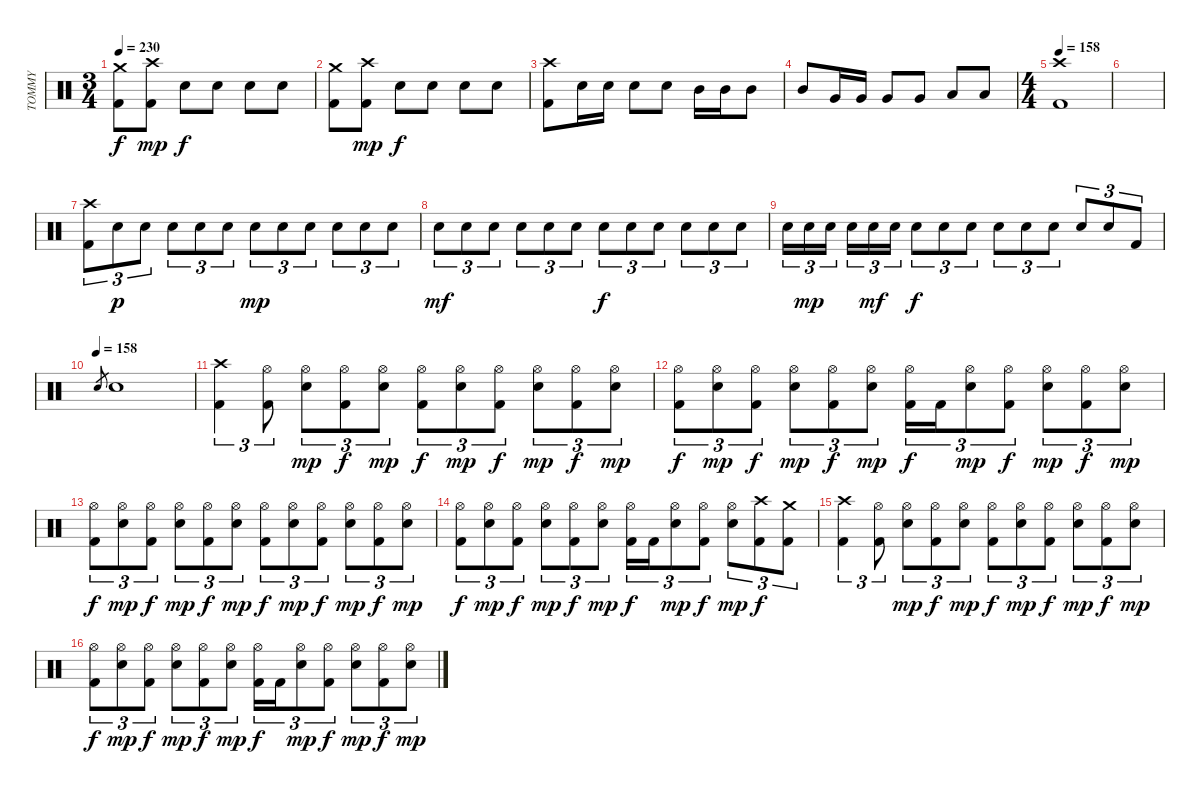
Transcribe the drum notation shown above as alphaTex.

\track ("TOMMY" "TOMMY") {instrument percussion}
\staff {score}
\articulation defaults
\ts (3 4)
\tempo 230
\clef neutral
\ks c
("Kick (hit) 2" "Crash medium (hit)").8{dy f} ("Kick (hit) 2" "Crash high (hit)").8{dy mp} "Snare (hit) 2".8{dy f} "Snare (hit) 2".8 "Snare (hit) 2".8 "Snare (hit) 2".8 |
("Kick (hit) 2" "Crash medium (hit)").8 ("Kick (hit) 2" "Crash high (hit)").8{dy mp} "Snare (hit) 2".8{dy f} "Snare (hit) 2".8 "Snare (hit) 2".8 "Snare (hit) 2".8 |
("Kick (hit) 2" "Crash high (hit)").8 "Snare (hit) 2".16 "Snare (hit) 2".16 "Snare (hit) 2".8 "Snare (hit) 2".8 "Mid Tom (hit)".16 "Mid Tom (hit)".16 "Mid Tom (hit)".8 |
"Mid Tom (hit)".8 "Very Low Tom (hit)".16 "Very Low Tom (hit)".16 "Very Low Tom (hit)".8 "Very Low Tom (hit)".8 "Low Floor Tom (hit)".8 "Low Floor Tom (hit)".8 |
\ts (4 4)
\tempo 158
("Kick (hit) 2" "Crash high (hit)").1 |
|
("Kick (hit) 2" "Crash high (hit)").8{tu (3 2)} "Snare (hit) 2".8{tu (3 2) dy p} "Snare (hit) 2".8{tu (3 2)} "Snare (hit) 2".8{tu (3 2)} "Snare (hit) 2".8{tu (3 2)} "Snare (hit) 2".8{tu (3 2)} "Snare (hit) 2".8{tu (3 2) dy mp} "Snare (hit) 2".8{tu (3 2)} "Snare (hit) 2".8{tu (3 2)} "Snare (hit) 2".8{tu (3 2)} "Snare (hit) 2".8{tu (3 2)} "Snare (hit) 2".8{tu (3 2)} |
"Snare (hit) 2".8{tu (3 2) dy mf} "Snare (hit) 2".8{tu (3 2)} "Snare (hit) 2".8{tu (3 2)} "Snare (hit) 2".8{tu (3 2)} "Snare (hit) 2".8{tu (3 2)} "Snare (hit) 2".8{tu (3 2)} "Snare (hit) 2".8{tu (3 2) dy f} "Snare (hit) 2".8{tu (3 2)} "Snare (hit) 2".8{tu (3 2)} "Snare (hit) 2".8{tu (3 2)} "Snare (hit) 2".8{tu (3 2)} "Snare (hit) 2".8{tu (3 2)} |
"Snare (hit) 2".16{tu (3 2)} "Snare (hit) 2".16{tu (3 2) dy mp} "Snare (hit) 2".16{tu (3 2)} "Snare (hit) 2".16{tu (3 2)} "Snare (hit) 2".16{tu (3 2) dy mf} "Snare (hit) 2".16{tu (3 2)} "Snare (hit) 2".8{tu (3 2) dy f} "Snare (hit) 2".8{tu (3 2)} "Snare (hit) 2".8{tu (3 2)} "Snare (hit) 2".8{tu (3 2)} "Snare (hit) 2".8{tu (3 2)} "Snare (hit) 2".8{tu (3 2)} "Snare (hit) 2".8{tu (3 2)} "Snare (hit) 2".8{tu (3 2)} "Kick (hit) 2".8{tu (3 2)} |
\tempo (158)
"Snare (hit) 2".8{gr} "Snare (hit) 2".1 |
("Kick (hit) 2" "Crash high (hit)").4{tu (3 2)} ("Kick (hit) 2" "Hi-Hat (open)").8{tu (3 2)} ("Snare (hit) 2" "Hi-Hat (open)").8{tu (3 2) dy mp} ("Kick (hit) 2" "Hi-Hat (open)").8{tu (3 2) dy f} ("Snare (hit) 2" "Hi-Hat (open)").8{tu (3 2) dy mp} ("Kick (hit) 2" "Hi-Hat (open)").8{tu (3 2) dy f} ("Snare (hit) 2" "Hi-Hat (open)").8{tu (3 2) dy mp} ("Kick (hit) 2" "Hi-Hat (open)").8{tu (3 2) dy f} ("Snare (hit) 2" "Hi-Hat (open)").8{tu (3 2) dy mp} ("Kick (hit) 2" "Hi-Hat (open)").8{tu (3 2) dy f} ("Snare (hit) 2" "Hi-Hat (open)").8{tu (3 2) dy mp} |
("Kick (hit) 2" "Hi-Hat (open)").8{tu (3 2) dy f} ("Snare (hit) 2" "Hi-Hat (open)").8{tu (3 2) dy mp} ("Kick (hit) 2" "Hi-Hat (open)").8{tu (3 2) dy f} ("Snare (hit) 2" "Hi-Hat (open)").8{tu (3 2) dy mp} ("Kick (hit) 2" "Hi-Hat (open)").8{tu (3 2) dy f} ("Snare (hit) 2" "Hi-Hat (open)").8{tu (3 2) dy mp} ("Kick (hit) 2" "Hi-Hat (open)").16{tu (3 2) dy f} "Kick (hit) 2".16{tu (3 2)} ("Snare (hit) 2" "Hi-Hat (open)").8{tu (3 2) dy mp} ("Kick (hit) 2" "Hi-Hat (open)").8{tu (3 2) dy f} ("Snare (hit) 2" "Hi-Hat (open)").8{tu (3 2) dy mp} ("Kick (hit) 2" "Hi-Hat (open)").8{tu (3 2) dy f} ("Snare (hit) 2" "Hi-Hat (open)").8{tu (3 2) dy mp} |
("Kick (hit) 2" "Hi-Hat (open)").8{tu (3 2) dy f} ("Snare (hit) 2" "Hi-Hat (open)").8{tu (3 2) dy mp} ("Kick (hit) 2" "Hi-Hat (open)").8{tu (3 2) dy f} ("Snare (hit) 2" "Hi-Hat (open)").8{tu (3 2) dy mp} ("Kick (hit) 2" "Hi-Hat (open)").8{tu (3 2) dy f} ("Snare (hit) 2" "Hi-Hat (open)").8{tu (3 2) dy mp} ("Kick (hit) 2" "Hi-Hat (open)").8{tu (3 2) dy f} ("Snare (hit) 2" "Hi-Hat (open)").8{tu (3 2) dy mp} ("Kick (hit) 2" "Hi-Hat (open)").8{tu (3 2) dy f} ("Snare (hit) 2" "Hi-Hat (open)").8{tu (3 2) dy mp} ("Kick (hit) 2" "Hi-Hat (open)").8{tu (3 2) dy f} ("Snare (hit) 2" "Hi-Hat (open)").8{tu (3 2) dy mp} |
("Kick (hit) 2" "Hi-Hat (open)").8{tu (3 2) dy f} ("Snare (hit) 2" "Hi-Hat (open)").8{tu (3 2) dy mp} ("Kick (hit) 2" "Hi-Hat (open)").8{tu (3 2) dy f} ("Snare (hit) 2" "Hi-Hat (open)").8{tu (3 2) dy mp} ("Kick (hit) 2" "Hi-Hat (open)").8{tu (3 2) dy f} ("Snare (hit) 2" "Hi-Hat (open)").8{tu (3 2) dy mp} ("Kick (hit) 2" "Hi-Hat (open)").16{tu (3 2) dy f} "Kick (hit) 2".16{tu (3 2)} ("Snare (hit) 2" "Hi-Hat (open)").8{tu (3 2) dy mp} ("Kick (hit) 2" "Hi-Hat (open)").8{tu (3 2) dy f} ("Snare (hit) 2" "Hi-Hat (open)").8{tu (3 2) dy mp} ("Kick (hit) 2" "Crash high (hit)").8{tu (3 2) dy f} ("Kick (hit) 2" "Crash medium (hit)").8{tu (3 2)} |
("Kick (hit) 2" "Crash high (hit)").4{tu (3 2)} ("Kick (hit) 2" "Hi-Hat (open)").8{tu (3 2)} ("Snare (hit) 2" "Hi-Hat (open)").8{tu (3 2) dy mp} ("Kick (hit) 2" "Hi-Hat (open)").8{tu (3 2) dy f} ("Snare (hit) 2" "Hi-Hat (open)").8{tu (3 2) dy mp} ("Kick (hit) 2" "Hi-Hat (open)").8{tu (3 2) dy f} ("Snare (hit) 2" "Hi-Hat (open)").8{tu (3 2) dy mp} ("Kick (hit) 2" "Hi-Hat (open)").8{tu (3 2) dy f} ("Snare (hit) 2" "Hi-Hat (open)").8{tu (3 2) dy mp} ("Kick (hit) 2" "Hi-Hat (open)").8{tu (3 2) dy f} ("Snare (hit) 2" "Hi-Hat (open)").8{tu (3 2) dy mp} |
("Kick (hit) 2" "Hi-Hat (open)").8{tu (3 2) dy f} ("Snare (hit) 2" "Hi-Hat (open)").8{tu (3 2) dy mp} ("Kick (hit) 2" "Hi-Hat (open)").8{tu (3 2) dy f} ("Snare (hit) 2" "Hi-Hat (open)").8{tu (3 2) dy mp} ("Kick (hit) 2" "Hi-Hat (open)").8{tu (3 2) dy f} ("Snare (hit) 2" "Hi-Hat (open)").8{tu (3 2) dy mp} ("Kick (hit) 2" "Hi-Hat (open)").16{tu (3 2) dy f} "Kick (hit) 2".16{tu (3 2)} ("Snare (hit) 2" "Hi-Hat (open)").8{tu (3 2) dy mp} ("Kick (hit) 2" "Hi-Hat (open)").8{tu (3 2) dy f} ("Snare (hit) 2" "Hi-Hat (open)").8{tu (3 2) dy mp} ("Kick (hit) 2" "Hi-Hat (open)").8{tu (3 2) dy f} ("Snare (hit) 2" "Hi-Hat (open)").8{tu (3 2) dy mp}
